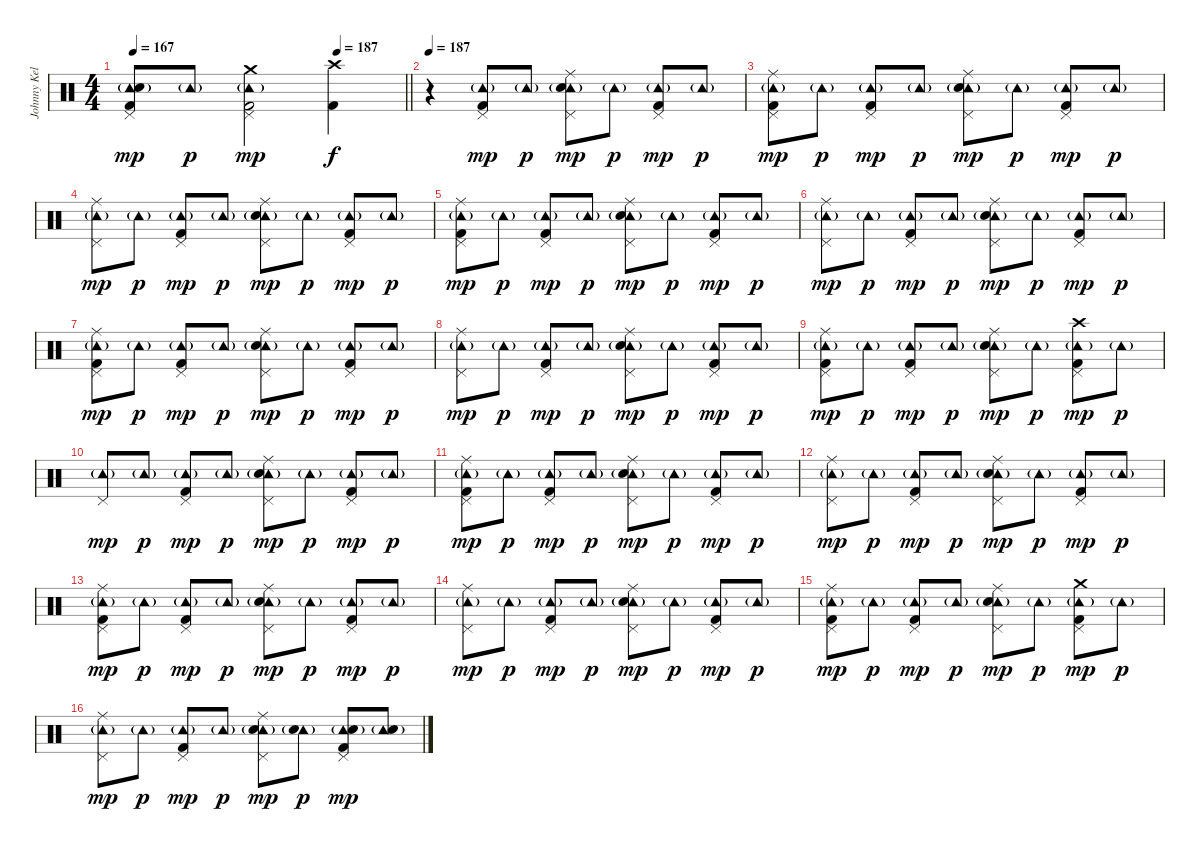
\track ("Johnny Kelly" "Johnny Kel") {instrument percussion}
\staff {score}
\articulation defaults
\ts (4 4)
\tempo 167
\tempo (187 0.75)
\clef neutral
\barLineRight lightlight
\ks c
("Tambourine (hit)"{g} "Pedal Hi-Hat (hit)" "Electric Snare (hit)" "Kick (hit) 2").8{dy mp} "Tambourine (hit)"{g}.8{dy p} ("Tambourine (hit)"{g} "Pedal Hi-Hat (hit)" "Crash medium (hit)" "Kick (hit) 2").2{dy mp} ("Crash high (hit)" "Kick (hit) 2").4{dy f} |
\section ("" "")
\tempo 187
r.4 ("Tambourine (hit)"{g} "Pedal Hi-Hat (hit)" "Kick (hit) 2").8{dy mp} "Tambourine (hit)"{g}.8{dy p} ("Tambourine (hit)"{g} "Pedal Hi-Hat (hit)" "Ride (middle)" "Electric Snare (hit)").8{dy mp} "Tambourine (hit)"{g}.8{dy p} ("Tambourine (hit)"{g} "Pedal Hi-Hat (hit)" "Kick (hit) 2").8{dy mp} "Tambourine (hit)"{g}.8{dy p} |
("Tambourine (hit)"{g} "Pedal Hi-Hat (hit)" "Ride (middle)" "Kick (hit) 2").8{dy mp} "Tambourine (hit)"{g}.8{dy p} ("Tambourine (hit)"{g} "Pedal Hi-Hat (hit)" "Kick (hit) 2").8{dy mp} "Tambourine (hit)"{g}.8{dy p} ("Tambourine (hit)"{g} "Pedal Hi-Hat (hit)" "Ride (middle)" "Electric Snare (hit)").8{dy mp} "Tambourine (hit)"{g}.8{dy p} ("Tambourine (hit)"{g} "Pedal Hi-Hat (hit)" "Kick (hit) 2").8{dy mp} "Tambourine (hit)"{g}.8{dy p} |
("Tambourine (hit)"{g} "Pedal Hi-Hat (hit)" "Ride (middle)").8{dy mp} "Tambourine (hit)"{g}.8{dy p} ("Tambourine (hit)"{g} "Pedal Hi-Hat (hit)" "Kick (hit) 2").8{dy mp} "Tambourine (hit)"{g}.8{dy p} ("Tambourine (hit)"{g} "Pedal Hi-Hat (hit)" "Ride (middle)" "Electric Snare (hit)").8{dy mp} "Tambourine (hit)"{g}.8{dy p} ("Tambourine (hit)"{g} "Pedal Hi-Hat (hit)" "Kick (hit) 2").8{dy mp} "Tambourine (hit)"{g}.8{dy p} |
("Tambourine (hit)"{g} "Pedal Hi-Hat (hit)" "Ride (middle)" "Kick (hit) 2").8{dy mp} "Tambourine (hit)"{g}.8{dy p} ("Tambourine (hit)"{g} "Pedal Hi-Hat (hit)" "Kick (hit) 2").8{dy mp} "Tambourine (hit)"{g}.8{dy p} ("Tambourine (hit)"{g} "Pedal Hi-Hat (hit)" "Ride (middle)" "Electric Snare (hit)").8{dy mp} "Tambourine (hit)"{g}.8{dy p} ("Tambourine (hit)"{g} "Pedal Hi-Hat (hit)" "Kick (hit) 2").8{dy mp} "Tambourine (hit)"{g}.8{dy p} |
("Tambourine (hit)"{g} "Pedal Hi-Hat (hit)" "Ride (middle)").8{dy mp} "Tambourine (hit)"{g}.8{dy p} ("Tambourine (hit)"{g} "Pedal Hi-Hat (hit)" "Kick (hit) 2").8{dy mp} "Tambourine (hit)"{g}.8{dy p} ("Tambourine (hit)"{g} "Pedal Hi-Hat (hit)" "Ride (middle)" "Electric Snare (hit)").8{dy mp} "Tambourine (hit)"{g}.8{dy p} ("Tambourine (hit)"{g} "Pedal Hi-Hat (hit)" "Kick (hit) 2").8{dy mp} "Tambourine (hit)"{g}.8{dy p} |
("Tambourine (hit)"{g} "Pedal Hi-Hat (hit)" "Ride (middle)" "Kick (hit) 2").8{dy mp} "Tambourine (hit)"{g}.8{dy p} ("Tambourine (hit)"{g} "Pedal Hi-Hat (hit)" "Kick (hit) 2").8{dy mp} "Tambourine (hit)"{g}.8{dy p} ("Tambourine (hit)"{g} "Pedal Hi-Hat (hit)" "Ride (middle)" "Electric Snare (hit)").8{dy mp} "Tambourine (hit)"{g}.8{dy p} ("Tambourine (hit)"{g} "Pedal Hi-Hat (hit)" "Kick (hit) 2").8{dy mp} "Tambourine (hit)"{g}.8{dy p} |
("Tambourine (hit)"{g} "Pedal Hi-Hat (hit)" "Ride (middle)").8{dy mp} "Tambourine (hit)"{g}.8{dy p} ("Tambourine (hit)"{g} "Pedal Hi-Hat (hit)" "Kick (hit) 2").8{dy mp} "Tambourine (hit)"{g}.8{dy p} ("Tambourine (hit)"{g} "Pedal Hi-Hat (hit)" "Ride (middle)" "Electric Snare (hit)").8{dy mp} "Tambourine (hit)"{g}.8{dy p} ("Tambourine (hit)"{g} "Pedal Hi-Hat (hit)" "Kick (hit) 2").8{dy mp} "Tambourine (hit)"{g}.8{dy p} |
("Tambourine (hit)"{g} "Pedal Hi-Hat (hit)" "Ride (middle)" "Kick (hit) 2").8{dy mp} "Tambourine (hit)"{g}.8{dy p} ("Tambourine (hit)"{g} "Pedal Hi-Hat (hit)" "Kick (hit) 2").8{dy mp} "Tambourine (hit)"{g}.8{dy p} ("Tambourine (hit)"{g} "Pedal Hi-Hat (hit)" "Ride (middle)" "Electric Snare (hit)").8{dy mp} "Tambourine (hit)"{g}.8{dy p} ("Tambourine (hit)"{g} "Pedal Hi-Hat (hit)" "Crash high (hit)" "Kick (hit) 2").8{dy mp} "Tambourine (hit)"{g}.8{dy p} |
("Tambourine (hit)"{g} "Pedal Hi-Hat (hit)").8{dy mp} "Tambourine (hit)"{g}.8{dy p} ("Tambourine (hit)"{g} "Pedal Hi-Hat (hit)" "Kick (hit) 2").8{dy mp} "Tambourine (hit)"{g}.8{dy p} ("Tambourine (hit)"{g} "Pedal Hi-Hat (hit)" "Ride (middle)" "Electric Snare (hit)").8{dy mp} "Tambourine (hit)"{g}.8{dy p} ("Tambourine (hit)"{g} "Pedal Hi-Hat (hit)" "Kick (hit) 2").8{dy mp} "Tambourine (hit)"{g}.8{dy p} |
("Tambourine (hit)"{g} "Pedal Hi-Hat (hit)" "Ride (middle)" "Kick (hit) 2").8{dy mp} "Tambourine (hit)"{g}.8{dy p} ("Tambourine (hit)"{g} "Pedal Hi-Hat (hit)" "Kick (hit) 2").8{dy mp} "Tambourine (hit)"{g}.8{dy p} ("Tambourine (hit)"{g} "Pedal Hi-Hat (hit)" "Ride (middle)" "Electric Snare (hit)").8{dy mp} "Tambourine (hit)"{g}.8{dy p} ("Tambourine (hit)"{g} "Pedal Hi-Hat (hit)" "Kick (hit) 2").8{dy mp} "Tambourine (hit)"{g}.8{dy p} |
("Tambourine (hit)"{g} "Pedal Hi-Hat (hit)" "Ride (middle)").8{dy mp} "Tambourine (hit)"{g}.8{dy p} ("Tambourine (hit)"{g} "Pedal Hi-Hat (hit)" "Kick (hit) 2").8{dy mp} "Tambourine (hit)"{g}.8{dy p} ("Tambourine (hit)"{g} "Pedal Hi-Hat (hit)" "Ride (middle)" "Electric Snare (hit)").8{dy mp} "Tambourine (hit)"{g}.8{dy p} ("Tambourine (hit)"{g} "Pedal Hi-Hat (hit)" "Kick (hit) 2").8{dy mp} "Tambourine (hit)"{g}.8{dy p} |
("Tambourine (hit)"{g} "Pedal Hi-Hat (hit)" "Ride (middle)" "Kick (hit) 2").8{dy mp} "Tambourine (hit)"{g}.8{dy p} ("Tambourine (hit)"{g} "Pedal Hi-Hat (hit)" "Kick (hit) 2").8{dy mp} "Tambourine (hit)"{g}.8{dy p} ("Tambourine (hit)"{g} "Pedal Hi-Hat (hit)" "Ride (middle)" "Electric Snare (hit)").8{dy mp} "Tambourine (hit)"{g}.8{dy p} ("Tambourine (hit)"{g} "Pedal Hi-Hat (hit)" "Kick (hit) 2").8{dy mp} "Tambourine (hit)"{g}.8{dy p} |
("Tambourine (hit)"{g} "Pedal Hi-Hat (hit)" "Ride (middle)").8{dy mp} "Tambourine (hit)"{g}.8{dy p} ("Tambourine (hit)"{g} "Pedal Hi-Hat (hit)" "Kick (hit) 2").8{dy mp} "Tambourine (hit)"{g}.8{dy p} ("Tambourine (hit)"{g} "Pedal Hi-Hat (hit)" "Ride (middle)" "Electric Snare (hit)").8{dy mp} "Tambourine (hit)"{g}.8{dy p} ("Tambourine (hit)"{g} "Pedal Hi-Hat (hit)" "Kick (hit) 2").8{dy mp} "Tambourine (hit)"{g}.8{dy p} |
("Tambourine (hit)"{g} "Pedal Hi-Hat (hit)" "Ride (middle)" "Kick (hit) 2").8{dy mp} "Tambourine (hit)"{g}.8{dy p} ("Tambourine (hit)"{g} "Pedal Hi-Hat (hit)" "Kick (hit) 2").8{dy mp} "Tambourine (hit)"{g}.8{dy p} ("Tambourine (hit)"{g} "Pedal Hi-Hat (hit)" "Ride (middle)" "Electric Snare (hit)").8{dy mp} "Tambourine (hit)"{g}.8{dy p} ("Tambourine (hit)"{g} "Pedal Hi-Hat (hit)" "Crash medium (hit)" "Kick (hit) 2").8{dy mp} "Tambourine (hit)"{g}.8{dy p} |
("Tambourine (hit)"{g} "Pedal Hi-Hat (hit)" "Ride (middle)").8{dy mp} "Tambourine (hit)"{g}.8{dy p} ("Tambourine (hit)"{g} "Pedal Hi-Hat (hit)" "Kick (hit) 2").8{dy mp} "Tambourine (hit)"{g}.8{dy p} ("Tambourine (hit)"{g} "Pedal Hi-Hat (hit)" "Ride (middle)" "Electric Snare (hit)").8{dy mp} ("Tambourine (hit)"{g} "Electric Snare (hit)").8{dy p} ("Tambourine (hit)"{g} "Pedal Hi-Hat (hit)" "Electric Snare (hit)"{g} "Kick (hit) 2").8{dy mp} ("Tambourine (hit)"{g} "Electric Snare (hit)"{g}).8
